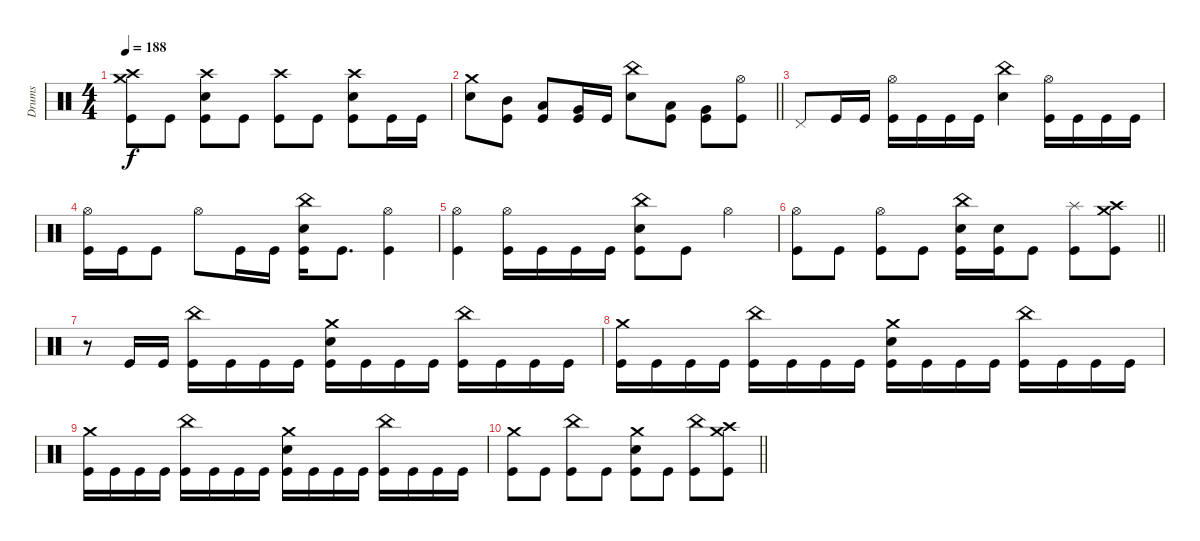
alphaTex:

\track ("Drums" "Drums") {instrument percussion}
\staff
\articulation defaults
\ts (4 4)
\tempo 188
\clef neutral
\ks c
("Crash high (hit)" "Crash medium (hit)" "Kick (hit)").8{dy f} "Kick (hit)".8 ("Crash high (hit)" "Electric Snare (hit)" "Kick (hit)").8 "Kick (hit)".8 ("Crash high (hit)" "Kick (hit)").8 "Kick (hit)".8 ("Crash high (hit)" "Electric Snare (hit)" "Kick (hit)").8 "Kick (hit)".16 "Kick (hit)".16 |
\barLineRight lightlight
("Crash medium (hit)" "Electric Snare (hit)").8 ("Mid Tom (hit)" "Kick (hit)").8 ("Low Tom (hit)" "Kick (hit)").8 ("Very Low Tom (hit)" "Kick (hit)").16 "Kick (hit)".16 ("China (hit)" "Electric Snare (hit)").8 ("Low Tom (hit)" "Kick (hit)").8 ("Very Low Tom (hit)" "Kick (hit)").8 ("Hi-Hat (open)" "Kick (hit)").8 |
\section ("" "")
"Pedal Hi-Hat (hit)".8 "Kick (hit)".16 "Kick (hit)".16 ("Hi-Hat (open)" "Kick (hit)").16 "Kick (hit)".16 "Kick (hit)".16 "Kick (hit)".16 ("China (hit)" "Electric Snare (hit)").4 ("Hi-Hat (open)" "Kick (hit)").16 "Kick (hit)".16 "Kick (hit)".16 "Kick (hit)".16 |
("Hi-Hat (open)" "Kick (hit)").16 "Kick (hit)".16 "Kick (hit)".8 "Hi-Hat (open)".8 "Kick (hit)".16 "Kick (hit)".16 ("China (hit)" "Electric Snare (hit)" "Kick (hit)").16 "Kick (hit)".8{d} ("Hi-Hat (open)" "Kick (hit)").4 |
("Hi-Hat (open)" "Kick (hit)").4 ("Hi-Hat (open)" "Kick (hit)").16 "Kick (hit)".16 "Kick (hit)".16 "Kick (hit)".16 ("China (hit)" "Electric Snare (hit)" "Kick (hit)").8 "Kick (hit)".8 "Hi-Hat (open)".4 |
\barLineRight lightlight
("Hi-Hat (open)" "Kick (hit)").8 "Kick (hit)".8 ("Hi-Hat (open)" "Kick (hit)").8 "Kick (hit)".8 ("China (hit)" "Electric Snare (hit)" "Kick (hit)").16 ("Electric Snare (hit)" "Kick (hit)").16 "Kick (hit)".8 ("Splash (hit)" "Kick (hit)").8 ("Crash high (hit)" "Crash medium (hit)" "Kick (hit)").8 |
r.8 "Kick (hit)".16 "Kick (hit)".16 ("China (hit)" "Kick (hit)").16 "Kick (hit)".16 "Kick (hit)".16 "Kick (hit)".16 ("Crash medium (hit)" "Electric Snare (hit)" "Kick (hit)").16 "Kick (hit)".16 "Kick (hit)".16 "Kick (hit)".16 ("China (hit)" "Kick (hit)").16 "Kick (hit)".16 "Kick (hit)".16 "Kick (hit)".16 |
("Crash medium (hit)" "Kick (hit)").16 "Kick (hit)".16 "Kick (hit)".16 "Kick (hit)".16 ("China (hit)" "Kick (hit)").16 "Kick (hit)".16 "Kick (hit)".16 "Kick (hit)".16 ("Crash medium (hit)" "Electric Snare (hit)" "Kick (hit)").16 "Kick (hit)".16 "Kick (hit)".16 "Kick (hit)".16 ("China (hit)" "Kick (hit)").16 "Kick (hit)".16 "Kick (hit)".16 "Kick (hit)".16 |
("Crash medium (hit)" "Kick (hit)").16 "Kick (hit)".16 "Kick (hit)".16 "Kick (hit)".16 ("China (hit)" "Kick (hit)").16 "Kick (hit)".16 "Kick (hit)".16 "Kick (hit)".16 ("Crash medium (hit)" "Electric Snare (hit)" "Kick (hit)").16 "Kick (hit)".16 "Kick (hit)".16 "Kick (hit)".16 ("China (hit)" "Kick (hit)").16 "Kick (hit)".16 "Kick (hit)".16 "Kick (hit)".16 |
\barLineRight lightlight
("Crash medium (hit)" "Kick (hit)").8 "Kick (hit)".8 ("China (hit)" "Kick (hit)").8 "Kick (hit)".8 ("Crash medium (hit)" "Electric Snare (hit)" "Kick (hit)").8 "Kick (hit)".8 ("China (hit)" "Kick (hit)").8 ("Crash high (hit)" "Crash medium (hit)" "Kick (hit)").8
